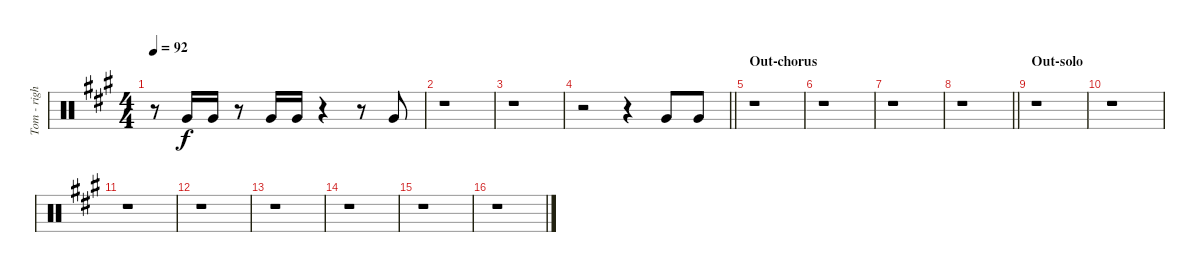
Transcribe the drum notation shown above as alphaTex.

\track ("Tom - right" "Tom - righ") {instrument percussion}
\staff {score}
\articulation defaults
\ts (4 4)
\tempo 92
\clef neutral
\ks f#minor
r.8{dy f} "Very Low Tom (hit)".16 "Very Low Tom (hit)".16 r.8 "Very Low Tom (hit)".16 "Very Low Tom (hit)".16 r.4 r.8 "Very Low Tom (hit)".8 |
r.1 |
r.1 |
\barLineRight lightlight
r.2 r.4 "Very Low Tom (hit)".8{beam Up} "Very Low Tom (hit)".8{beam Up} |
\section ("" "Out-chorus")
r.1 |
r.1 |
r.1 |
\barLineRight lightlight
r.1 |
\section ("" "Out-solo")
r.1 |
r.1 |
r.1 |
r.1 |
r.1 |
r.1 |
r.1 |
r.1
